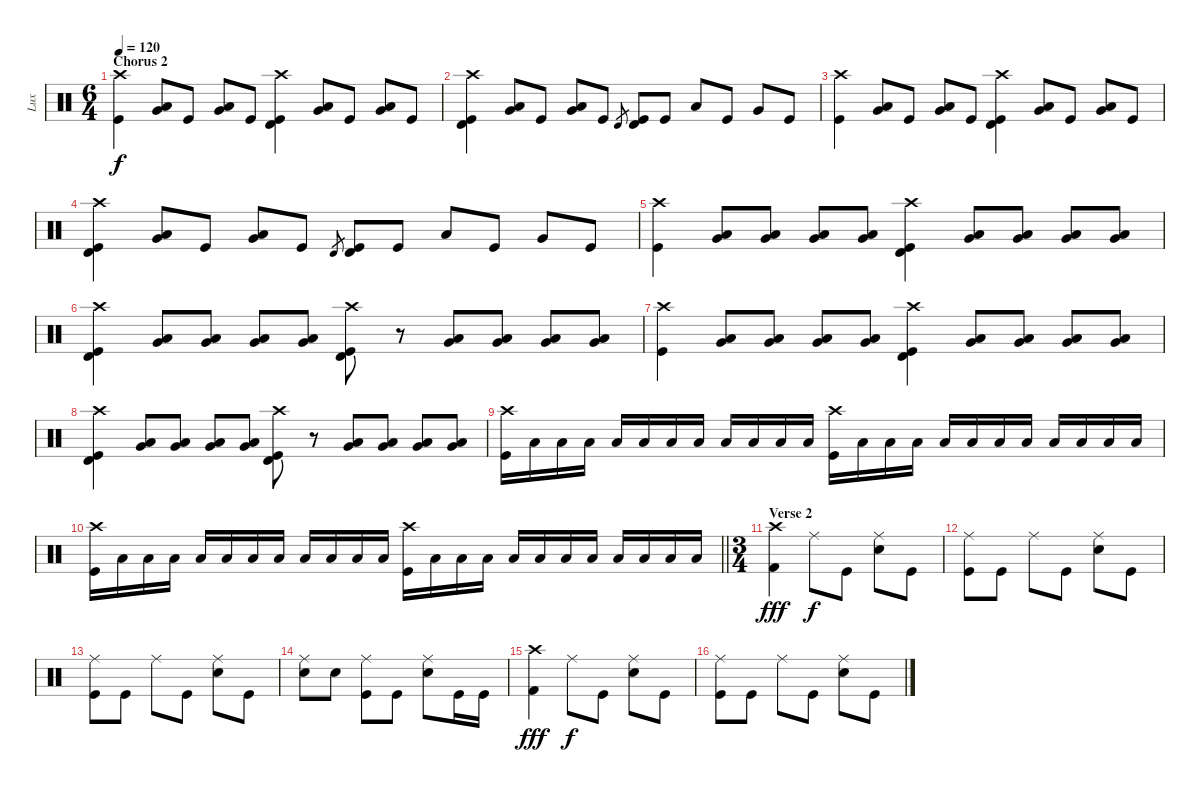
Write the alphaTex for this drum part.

\track ("Lux" "Lux") {solo instrument percussion}
\staff {score}
\articulation defaults
\ts (6 4)
\section ("" "Chorus 2")
\tempo 120
\clef neutral
\ks c
("Crash high (hit)" "Kick (hit)").4{dy f} ("Very Low Tom (hit)" "Low Floor Tom (hit)").8 "Kick (hit)".8 ("Very Low Tom (hit)" "Low Floor Tom (hit)").8 "Kick (hit)".8 ("Crash high (hit)" "Timbale high (hit)" "Kick (hit)").4 ("Very Low Tom (hit)" "Low Floor Tom (hit)").8 "Kick (hit)".8 ("Very Low Tom (hit)" "Low Floor Tom (hit)").8 "Kick (hit)".8 |
("Crash high (hit)" "Timbale high (hit)" "Kick (hit)").4 ("Very Low Tom (hit)" "Low Floor Tom (hit)").8 "Kick (hit)".8 ("Very Low Tom (hit)" "Low Floor Tom (hit)").8 "Kick (hit)".8 "Timbale high (hit)".8{gr} ("Timbale high (hit)" "Kick (hit)").8 "Kick (hit)".8 "Low Tom (hit)".8 "Kick (hit)".8 "Very Low Tom (hit)".8 "Kick (hit)".8 |
("Crash high (hit)" "Kick (hit)").4 ("Very Low Tom (hit)" "Low Floor Tom (hit)").8 "Kick (hit)".8 ("Very Low Tom (hit)" "Low Floor Tom (hit)").8 "Kick (hit)".8 ("Crash high (hit)" "Timbale high (hit)" "Kick (hit)").4 ("Very Low Tom (hit)" "Low Floor Tom (hit)").8 "Kick (hit)".8 ("Very Low Tom (hit)" "Low Floor Tom (hit)").8 "Kick (hit)".8 |
("Crash high (hit)" "Timbale high (hit)" "Kick (hit)").4 ("Very Low Tom (hit)" "Low Floor Tom (hit)").8 "Kick (hit)".8 ("Very Low Tom (hit)" "Low Floor Tom (hit)").8 "Kick (hit)".8 "Timbale high (hit)".8{gr} ("Timbale high (hit)" "Kick (hit)").8 "Kick (hit)".8 "Low Tom (hit)".8 "Kick (hit)".8 "Very Low Tom (hit)".8 "Kick (hit)".8 |
("Crash high (hit)" "Kick (hit)").4 ("Very Low Tom (hit)" "Low Floor Tom (hit)").8 ("Very Low Tom (hit)" "Low Floor Tom (hit)").8 ("Very Low Tom (hit)" "Low Floor Tom (hit)").8 ("Very Low Tom (hit)" "Low Floor Tom (hit)").8 ("Crash high (hit)" "Timbale high (hit)" "Kick (hit)").4 ("Very Low Tom (hit)" "Low Floor Tom (hit)").8 ("Very Low Tom (hit)" "Low Floor Tom (hit)").8 ("Very Low Tom (hit)" "Low Floor Tom (hit)").8 ("Very Low Tom (hit)" "Low Floor Tom (hit)").8 |
("Crash high (hit)" "Timbale high (hit)" "Kick (hit)").4 ("Very Low Tom (hit)" "Low Floor Tom (hit)").8 ("Very Low Tom (hit)" "Low Floor Tom (hit)").8 ("Very Low Tom (hit)" "Low Floor Tom (hit)").8 ("Very Low Tom (hit)" "Low Floor Tom (hit)").8 ("Crash high (hit)" "Timbale high (hit)" "Kick (hit)").8 r.8 ("Very Low Tom (hit)" "Low Floor Tom (hit)").8 ("Very Low Tom (hit)" "Low Floor Tom (hit)").8 ("Very Low Tom (hit)" "Low Floor Tom (hit)").8 ("Very Low Tom (hit)" "Low Floor Tom (hit)").8 |
("Crash high (hit)" "Kick (hit)").4 ("Very Low Tom (hit)" "Low Floor Tom (hit)").8 ("Very Low Tom (hit)" "Low Floor Tom (hit)").8 ("Very Low Tom (hit)" "Low Floor Tom (hit)").8 ("Very Low Tom (hit)" "Low Floor Tom (hit)").8 ("Crash high (hit)" "Timbale high (hit)" "Kick (hit)").4 ("Very Low Tom (hit)" "Low Floor Tom (hit)").8 ("Very Low Tom (hit)" "Low Floor Tom (hit)").8 ("Very Low Tom (hit)" "Low Floor Tom (hit)").8 ("Very Low Tom (hit)" "Low Floor Tom (hit)").8 |
("Crash high (hit)" "Timbale high (hit)" "Kick (hit)").4 ("Very Low Tom (hit)" "Low Floor Tom (hit)").8 ("Very Low Tom (hit)" "Low Floor Tom (hit)").8 ("Very Low Tom (hit)" "Low Floor Tom (hit)").8 ("Very Low Tom (hit)" "Low Floor Tom (hit)").8 ("Crash high (hit)" "Timbale high (hit)" "Kick (hit)").8 r.8 ("Very Low Tom (hit)" "Low Floor Tom (hit)").8 ("Very Low Tom (hit)" "Low Floor Tom (hit)").8 ("Very Low Tom (hit)" "Low Floor Tom (hit)").8 ("Very Low Tom (hit)" "Low Floor Tom (hit)").8 |
("Crash high (hit)" "Kick (hit)").16 "Low Floor Tom (hit)".16 "Low Floor Tom (hit)".16 "Low Floor Tom (hit)".16 "Low Floor Tom (hit)".16 "Low Floor Tom (hit)".16 "Low Floor Tom (hit)".16 "Low Floor Tom (hit)".16 "Low Floor Tom (hit)".16 "Low Floor Tom (hit)".16 "Low Floor Tom (hit)".16 "Low Floor Tom (hit)".16 ("Crash high (hit)" "Kick (hit)").16 "Low Floor Tom (hit)".16 "Low Floor Tom (hit)".16 "Low Floor Tom (hit)".16 "Low Floor Tom (hit)".16 "Low Floor Tom (hit)".16 "Low Floor Tom (hit)".16 "Low Floor Tom (hit)".16 "Low Floor Tom (hit)".16 "Low Floor Tom (hit)".16 "Low Floor Tom (hit)".16 "Low Floor Tom (hit)".16 |
\barLineRight lightlight
("Crash high (hit)" "Kick (hit)").16 "Low Floor Tom (hit)".16 "Low Floor Tom (hit)".16 "Low Floor Tom (hit)".16 "Low Floor Tom (hit)".16 "Low Floor Tom (hit)".16 "Low Floor Tom (hit)".16 "Low Floor Tom (hit)".16 "Low Floor Tom (hit)".16 "Low Floor Tom (hit)".16 "Low Floor Tom (hit)".16 "Low Floor Tom (hit)".16 ("Crash high (hit)" "Kick (hit)").16 "Low Floor Tom (hit)".16 "Low Floor Tom (hit)".16 "Low Floor Tom (hit)".16 "Low Floor Tom (hit)".16 "Low Floor Tom (hit)".16 "Low Floor Tom (hit)".16 "Low Floor Tom (hit)".16 "Low Floor Tom (hit)".16 "Low Floor Tom (hit)".16 "Low Floor Tom (hit)".16 "Low Floor Tom (hit)".16 |
\ts (3 4)
\section ("" "Verse 2")
("Crash high (hit)" "Kick (hit) 2").4{dy fff} "Ride (middle)".8{dy f} "Kick (hit)".8 ("Ride (middle)" "Snare (hit) 2").8 "Kick (hit)".8 |
("Ride (middle)" "Kick (hit)").8 "Kick (hit)".8 "Ride (middle)".8 "Kick (hit)".8 ("Ride (middle)" "Snare (hit) 2").8 "Kick (hit)".8 |
("Ride (middle)" "Kick (hit)").8 "Kick (hit)".8 "Ride (middle)".8 "Kick (hit)".8 ("Ride (middle)" "Snare (hit) 2").8 "Kick (hit)".8 |
("Ride (middle)" "Snare (hit) 2").8 "Snare (hit) 2".8 ("Ride (middle)" "Kick (hit)").8 "Kick (hit)".8 ("Ride (middle)" "Snare (hit) 2").8 "Kick (hit)".16 "Kick (hit)".16 |
("Crash high (hit)" "Kick (hit) 2").4{dy fff} "Ride (middle)".8{dy f} "Kick (hit)".8 ("Ride (middle)" "Snare (hit) 2").8 "Kick (hit)".8 |
("Ride (middle)" "Kick (hit)").8 "Kick (hit)".8 "Ride (middle)".8 "Kick (hit)".8 ("Ride (middle)" "Snare (hit) 2").8 "Kick (hit)".8
